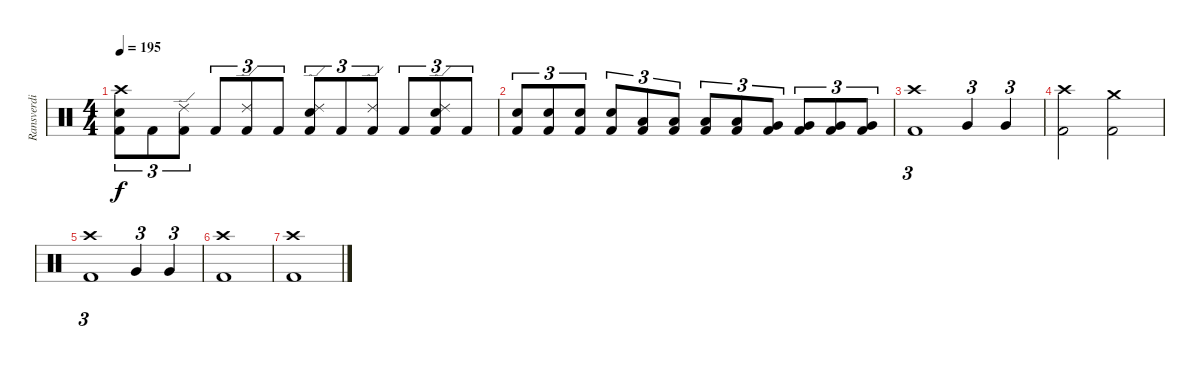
\track ("Ransverdi" "Ransverdi") {instrument percussion}
\staff {score}
\articulation defaults
\ts (4 4)
\tempo 195
\clef neutral
\ks c
("Crash high (hit)" "Snare (hit) 2" "Kick (hit) 2").8{tu (3 2) dy f} "Kick (hit) 2".8{tu (3 2)} ("Ride (edge) 2" "Kick (hit) 2").8{tu (3 2)} "Kick (hit) 2".8{tu (3 2)} ("Ride (edge) 2" "Kick (hit) 2").8{tu (3 2)} "Kick (hit) 2".8{tu (3 2)} ("Ride (edge) 2" "Snare (hit) 2" "Kick (hit) 2").8{tu (3 2)} "Kick (hit) 2".8{tu (3 2)} ("Ride (edge) 2" "Kick (hit) 2").8{tu (3 2)} "Kick (hit) 2".8{tu (3 2)} ("Ride (edge) 2" "Snare (hit) 2" "Kick (hit) 2").8{tu (3 2)} "Kick (hit) 2".8{tu (3 2)} |
("Snare (hit) 2" "Kick (hit) 2").8{tu (3 2)} ("Snare (hit) 2" "Kick (hit) 2").8{tu (3 2)} ("Snare (hit) 2" "Kick (hit) 2").8{tu (3 2)} ("Snare (hit) 2" "Kick (hit) 2").8{tu (3 2)} ("Low Tom (hit)" "Kick (hit) 2").8{tu (3 2)} ("Low Tom (hit)" "Kick (hit) 2").8{tu (3 2)} ("Low Tom (hit)" "Kick (hit) 2").8{tu (3 2)} ("Low Tom (hit)" "Kick (hit) 2").8{tu (3 2)} ("Very Low Tom (hit)" "Kick (hit) 2").8{tu (3 2)} ("Very Low Tom (hit)" "Kick (hit) 2").8{tu (3 2)} ("Very Low Tom (hit)" "Kick (hit) 2").8{tu (3 2)} ("Very Low Tom (hit)" "Kick (hit) 2").8{tu (3 2)} |
("Crash high (hit)" "Kick (hit) 2").1{tu (3 2)} "Very Low Tom (hit)".4{tu (3 2)} "Very Low Tom (hit)".4{tu (3 2)} |
("Crash high (hit)" "Kick (hit) 2").2 ("Crash medium (hit)" "Kick (hit) 2").2 |
("Crash high (hit)" "Kick (hit) 2").1{tu (3 2)} "Very Low Tom (hit)".4{tu (3 2)} "Very Low Tom (hit)".4{tu (3 2)} |
("Crash high (hit)" "Kick (hit) 2").1 |
("Crash high (hit)" "Kick (hit) 2").1
